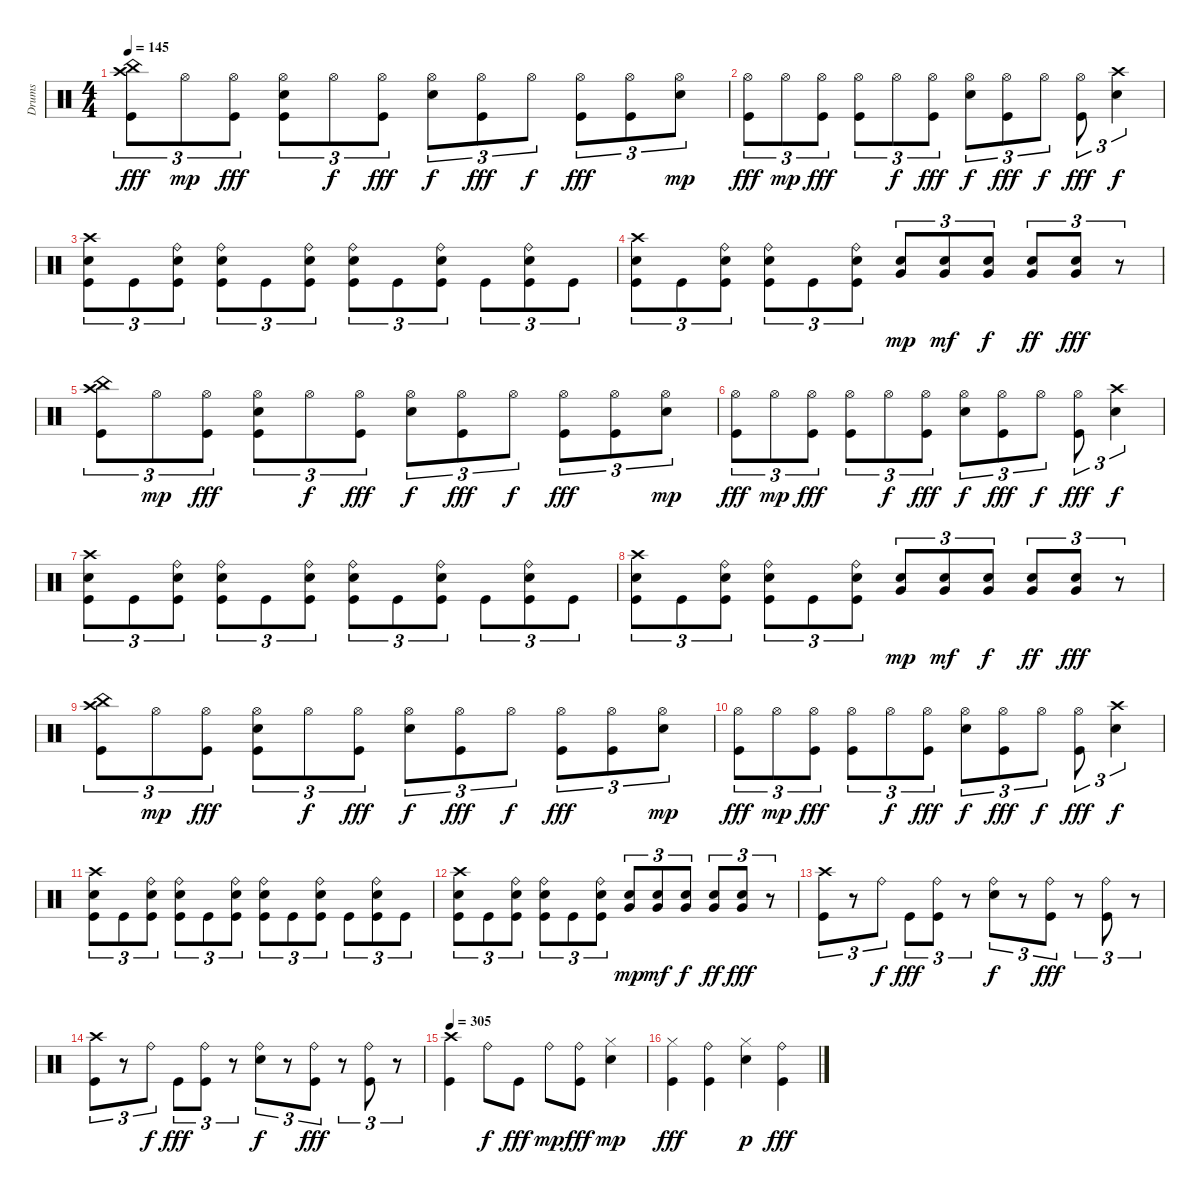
\track ("Drums" "Drums") {instrument percussion}
\staff {score}
\articulation defaults
\ts (4 4)
\tempo 145
\clef neutral
\ks c
("Crash high (hit)" "China (hit)" "Kick (hit)").8{tu (3 2) dy fff} "Hi-Hat (open)".8{tu (3 2) dy mp} ("Hi-Hat (open)" "Kick (hit)").8{tu (3 2) dy fff} ("Hi-Hat (open)" "Snare (hit)" "Kick (hit)").8{tu (3 2)} "Hi-Hat (open)".8{tu (3 2) dy f} ("Hi-Hat (open)" "Kick (hit)").8{tu (3 2) dy fff} ("Hi-Hat (open)" "Electric Snare (hit)").8{tu (3 2) dy f} ("Hi-Hat (open)" "Kick (hit)").8{tu (3 2) dy fff} "Hi-Hat (open)".8{tu (3 2) dy f} ("Hi-Hat (open)" "Kick (hit)").8{tu (3 2) dy fff} ("Hi-Hat (open)" "Kick (hit)").8{tu (3 2)} ("Hi-Hat (open)" "Electric Snare (hit)").8{tu (3 2) dy mp} |
("Hi-Hat (open)" "Kick (hit)").8{tu (3 2) dy fff} "Hi-Hat (open)".8{tu (3 2) dy mp} ("Hi-Hat (open)" "Kick (hit)").8{tu (3 2) dy fff} ("Hi-Hat (open)" "Kick (hit)").8{tu (3 2)} "Hi-Hat (open)".8{tu (3 2) dy f} ("Hi-Hat (open)" "Kick (hit)").8{tu (3 2) dy fff} ("Hi-Hat (open)" "Electric Snare (hit)").8{tu (3 2) dy f} ("Hi-Hat (open)" "Kick (hit)").8{tu (3 2) dy fff} "Hi-Hat (open)".8{tu (3 2) dy f} ("Hi-Hat (open)" "Kick (hit)").8{tu (3 2) dy fff} ("Crash high (hit)" "Electric Snare (hit)").4{tu (3 2) dy f} |
("Crash high (hit)" "Electric Snare (hit)" "Kick (hit)").8{tu (3 2)} "Kick (hit)".8{tu (3 2)} ("Ride (bell)" "Electric Snare (hit)" "Kick (hit)").8{tu (3 2)} ("Ride (bell)" "Electric Snare (hit)" "Kick (hit)").8{tu (3 2)} "Kick (hit)".8{tu (3 2)} ("Ride (bell)" "Electric Snare (hit)" "Kick (hit)").8{tu (3 2)} ("Ride (bell)" "Electric Snare (hit)" "Kick (hit)").8{tu (3 2)} "Kick (hit)".8{tu (3 2)} ("Ride (bell)" "Electric Snare (hit)" "Kick (hit)").8{tu (3 2)} "Kick (hit)".8{tu (3 2)} ("Ride (bell)" "Electric Snare (hit)" "Kick (hit)").8{tu (3 2)} "Kick (hit)".8{tu (3 2)} |
("Crash high (hit)" "Electric Snare (hit)" "Kick (hit)").8{tu (3 2)} "Kick (hit)".8{tu (3 2)} ("Ride (bell)" "Electric Snare (hit)" "Kick (hit)").8{tu (3 2)} ("Ride (bell)" "Electric Snare (hit)" "Kick (hit)").8{tu (3 2)} "Kick (hit)".8{tu (3 2)} ("Ride (bell)" "Electric Snare (hit)" "Kick (hit)").8{tu (3 2)} ("Very Low Tom (hit)" "Electric Snare (hit)").8{tu (3 2) dy mp} ("Very Low Tom (hit)" "Electric Snare (hit)").8{tu (3 2) dy mf} ("Very Low Tom (hit)" "Electric Snare (hit)").8{tu (3 2) dy f} ("Very Low Tom (hit)" "Electric Snare (hit)").8{tu (3 2) dy ff} ("Very Low Tom (hit)" "Electric Snare (hit)").8{tu (3 2) dy fff} r.8{tu (3 2)} |
("Crash high (hit)" "China (hit)" "Kick (hit)").8{tu (3 2)} "Hi-Hat (open)".8{tu (3 2) dy mp} ("Hi-Hat (open)" "Kick (hit)").8{tu (3 2) dy fff} ("Hi-Hat (open)" "Snare (hit)" "Kick (hit)").8{tu (3 2)} "Hi-Hat (open)".8{tu (3 2) dy f} ("Hi-Hat (open)" "Kick (hit)").8{tu (3 2) dy fff} ("Hi-Hat (open)" "Electric Snare (hit)").8{tu (3 2) dy f} ("Hi-Hat (open)" "Kick (hit)").8{tu (3 2) dy fff} "Hi-Hat (open)".8{tu (3 2) dy f} ("Hi-Hat (open)" "Kick (hit)").8{tu (3 2) dy fff} ("Hi-Hat (open)" "Kick (hit)").8{tu (3 2)} ("Hi-Hat (open)" "Electric Snare (hit)").8{tu (3 2) dy mp} |
("Hi-Hat (open)" "Kick (hit)").8{tu (3 2) dy fff} "Hi-Hat (open)".8{tu (3 2) dy mp} ("Hi-Hat (open)" "Kick (hit)").8{tu (3 2) dy fff} ("Hi-Hat (open)" "Kick (hit)").8{tu (3 2)} "Hi-Hat (open)".8{tu (3 2) dy f} ("Hi-Hat (open)" "Kick (hit)").8{tu (3 2) dy fff} ("Hi-Hat (open)" "Electric Snare (hit)").8{tu (3 2) dy f} ("Hi-Hat (open)" "Kick (hit)").8{tu (3 2) dy fff} "Hi-Hat (open)".8{tu (3 2) dy f} ("Hi-Hat (open)" "Kick (hit)").8{tu (3 2) dy fff} ("Crash high (hit)" "Electric Snare (hit)").4{tu (3 2) dy f} |
("Crash high (hit)" "Electric Snare (hit)" "Kick (hit)").8{tu (3 2)} "Kick (hit)".8{tu (3 2)} ("Ride (bell)" "Electric Snare (hit)" "Kick (hit)").8{tu (3 2)} ("Ride (bell)" "Electric Snare (hit)" "Kick (hit)").8{tu (3 2)} "Kick (hit)".8{tu (3 2)} ("Ride (bell)" "Electric Snare (hit)" "Kick (hit)").8{tu (3 2)} ("Ride (bell)" "Electric Snare (hit)" "Kick (hit)").8{tu (3 2)} "Kick (hit)".8{tu (3 2)} ("Ride (bell)" "Electric Snare (hit)" "Kick (hit)").8{tu (3 2)} "Kick (hit)".8{tu (3 2)} ("Ride (bell)" "Electric Snare (hit)" "Kick (hit)").8{tu (3 2)} "Kick (hit)".8{tu (3 2)} |
("Crash high (hit)" "Electric Snare (hit)" "Kick (hit)").8{tu (3 2)} "Kick (hit)".8{tu (3 2)} ("Ride (bell)" "Electric Snare (hit)" "Kick (hit)").8{tu (3 2)} ("Ride (bell)" "Electric Snare (hit)" "Kick (hit)").8{tu (3 2)} "Kick (hit)".8{tu (3 2)} ("Ride (bell)" "Electric Snare (hit)" "Kick (hit)").8{tu (3 2)} ("Very Low Tom (hit)" "Electric Snare (hit)").8{tu (3 2) dy mp} ("Very Low Tom (hit)" "Electric Snare (hit)").8{tu (3 2) dy mf} ("Very Low Tom (hit)" "Electric Snare (hit)").8{tu (3 2) dy f} ("Very Low Tom (hit)" "Electric Snare (hit)").8{tu (3 2) dy ff} ("Very Low Tom (hit)" "Electric Snare (hit)").8{tu (3 2) dy fff} r.8{tu (3 2)} |
("Crash high (hit)" "China (hit)" "Kick (hit)").8{tu (3 2)} "Hi-Hat (open)".8{tu (3 2) dy mp} ("Hi-Hat (open)" "Kick (hit)").8{tu (3 2) dy fff} ("Hi-Hat (open)" "Snare (hit)" "Kick (hit)").8{tu (3 2)} "Hi-Hat (open)".8{tu (3 2) dy f} ("Hi-Hat (open)" "Kick (hit)").8{tu (3 2) dy fff} ("Hi-Hat (open)" "Electric Snare (hit)").8{tu (3 2) dy f} ("Hi-Hat (open)" "Kick (hit)").8{tu (3 2) dy fff} "Hi-Hat (open)".8{tu (3 2) dy f} ("Hi-Hat (open)" "Kick (hit)").8{tu (3 2) dy fff} ("Hi-Hat (open)" "Kick (hit)").8{tu (3 2)} ("Hi-Hat (open)" "Electric Snare (hit)").8{tu (3 2) dy mp} |
("Hi-Hat (open)" "Kick (hit)").8{tu (3 2) dy fff} "Hi-Hat (open)".8{tu (3 2) dy mp} ("Hi-Hat (open)" "Kick (hit)").8{tu (3 2) dy fff} ("Hi-Hat (open)" "Kick (hit)").8{tu (3 2)} "Hi-Hat (open)".8{tu (3 2) dy f} ("Hi-Hat (open)" "Kick (hit)").8{tu (3 2) dy fff} ("Hi-Hat (open)" "Electric Snare (hit)").8{tu (3 2) dy f} ("Hi-Hat (open)" "Kick (hit)").8{tu (3 2) dy fff} "Hi-Hat (open)".8{tu (3 2) dy f} ("Hi-Hat (open)" "Kick (hit)").8{tu (3 2) dy fff} ("Crash high (hit)" "Electric Snare (hit)").4{tu (3 2) dy f} |
("Crash high (hit)" "Electric Snare (hit)" "Kick (hit)").8{tu (3 2)} "Kick (hit)".8{tu (3 2)} ("Ride (bell)" "Electric Snare (hit)" "Kick (hit)").8{tu (3 2)} ("Ride (bell)" "Electric Snare (hit)" "Kick (hit)").8{tu (3 2)} "Kick (hit)".8{tu (3 2)} ("Ride (bell)" "Electric Snare (hit)" "Kick (hit)").8{tu (3 2)} ("Ride (bell)" "Electric Snare (hit)" "Kick (hit)").8{tu (3 2)} "Kick (hit)".8{tu (3 2)} ("Ride (bell)" "Electric Snare (hit)" "Kick (hit)").8{tu (3 2)} "Kick (hit)".8{tu (3 2)} ("Ride (bell)" "Electric Snare (hit)" "Kick (hit)").8{tu (3 2)} "Kick (hit)".8{tu (3 2)} |
("Crash high (hit)" "Electric Snare (hit)" "Kick (hit)").8{tu (3 2)} "Kick (hit)".8{tu (3 2)} ("Ride (bell)" "Electric Snare (hit)" "Kick (hit)").8{tu (3 2)} ("Ride (bell)" "Electric Snare (hit)" "Kick (hit)").8{tu (3 2)} "Kick (hit)".8{tu (3 2)} ("Ride (bell)" "Electric Snare (hit)" "Kick (hit)").8{tu (3 2)} ("Very Low Tom (hit)" "Electric Snare (hit)").8{tu (3 2) dy mp} ("Very Low Tom (hit)" "Electric Snare (hit)").8{tu (3 2) dy mf} ("Very Low Tom (hit)" "Electric Snare (hit)").8{tu (3 2) dy f} ("Very Low Tom (hit)" "Electric Snare (hit)").8{tu (3 2) dy ff} ("Very Low Tom (hit)" "Electric Snare (hit)").8{tu (3 2) dy fff} r.8{tu (3 2)} |
("Crash high (hit)" "Kick (hit)").8{tu (3 2)} r.8{tu (3 2)} "Ride (bell)".8{tu (3 2) dy f} "Kick (hit)".8{tu (3 2) dy fff} ("Ride (bell)" "Kick (hit)").8{tu (3 2)} r.8{tu (3 2)} ("Ride (bell)" "Electric Snare (hit)").8{tu (3 2) dy f} r.8{tu (3 2)} ("Ride (bell)" "Kick (hit)").8{tu (3 2) dy fff} r.8{tu (3 2)} ("Ride (bell)" "Kick (hit)").8{tu (3 2)} r.8{tu (3 2)} |
("Crash high (hit)" "Kick (hit)").8{tu (3 2)} r.8{tu (3 2)} "Ride (bell)".8{tu (3 2) dy f} "Kick (hit)".8{tu (3 2) dy fff} ("Ride (bell)" "Kick (hit)").8{tu (3 2)} r.8{tu (3 2)} ("Ride (bell)" "Electric Snare (hit)").8{tu (3 2) dy f} r.8{tu (3 2)} ("Ride (bell)" "Kick (hit)").8{tu (3 2) dy fff} r.8{tu (3 2)} ("Ride (bell)" "Kick (hit)").8{tu (3 2)} r.8{tu (3 2)} |
\tempo 305
("Crash high (hit)" "Kick (hit)").4 "Ride (bell)".8{dy f} "Kick (hit)".8{dy fff} "Ride (bell)".8{dy mp} ("Ride (bell)" "Kick (hit)").8{dy fff} ("Hi-Hat (closed)" "Electric Snare (hit)").4{dy mp} |
("Hi-Hat (closed)" "Kick (hit)").4{dy fff} ("Ride (bell)" "Kick (hit)").4 ("Hi-Hat (closed)" "Electric Snare (hit)").4{dy p} ("Ride (bell)" "Kick (hit)").4{dy fff}
